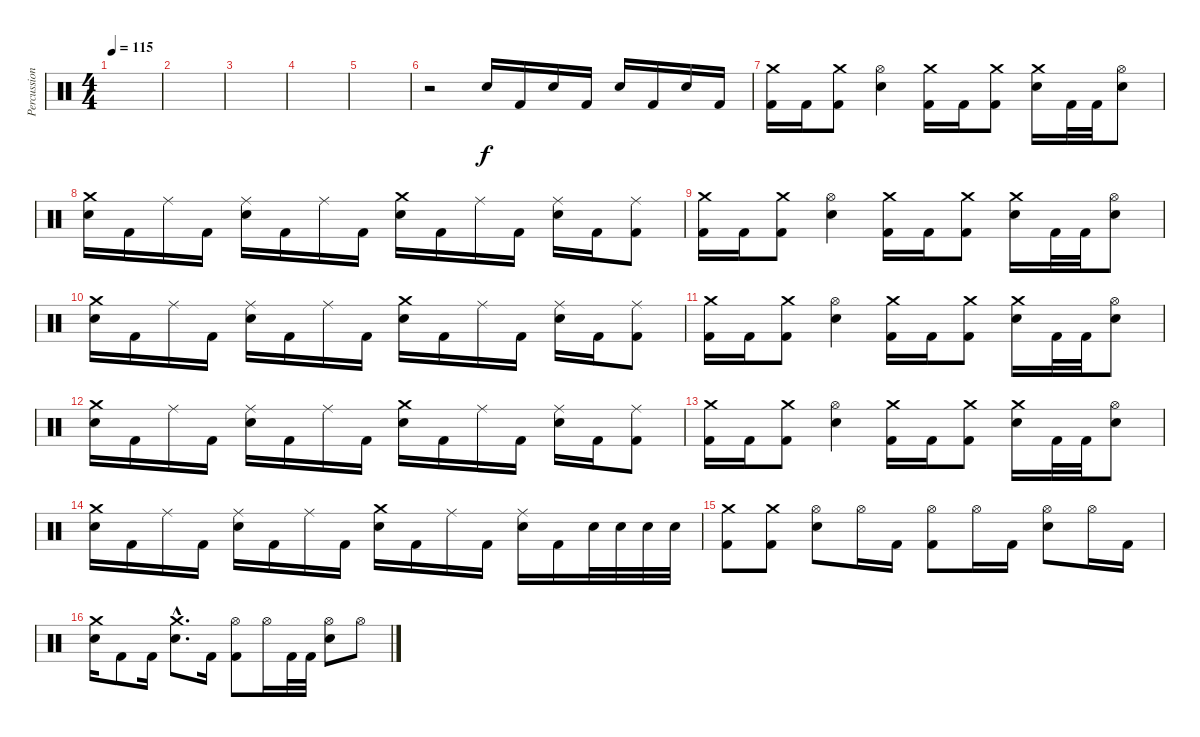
\track ("Percussion" "Percussion") {instrument percussion}
\staff {score}
\articulation defaults
\ts (4 4)
\tempo 115
\clef neutral
\ks c
|
|
|
|
|
r.2 "Snare (hit) 2".16 "Kick (hit) 2".16 "Snare (hit) 2".16 "Kick (hit) 2".16 "Snare (hit) 2".16 "Kick (hit) 2".16 "Snare (hit) 2".16 "Kick (hit) 2".16 |
("Crash medium (hit)" "Kick (hit) 2").16 "Kick (hit) 2".16 ("Crash medium (hit)" "Kick (hit) 2").8 ("Hi-Hat (open)" "Snare (hit) 2").4 ("Crash medium (hit)" "Kick (hit) 2").16 "Kick (hit) 2".16 ("Crash medium (hit)" "Kick (hit) 2").8 ("Crash medium (hit)" "Snare (hit) 2").16 "Kick (hit) 2".32 "Kick (hit) 2".32 ("Hi-Hat (open)" "Snare (hit) 2").8 |
("Crash medium (hit)" "Snare (hit) 2").16 "Kick (hit) 2".16 "Ride (middle)".16 "Kick (hit) 2".16 ("Ride (middle)" "Snare (hit) 2").16 "Kick (hit) 2".16 "Ride (middle)".16 "Kick (hit) 2".16 ("Crash medium (hit)" "Snare (hit) 2").16 "Kick (hit) 2".16 "Ride (middle)".16 "Kick (hit) 2".16 ("Ride (middle)" "Snare (hit) 2").16 "Kick (hit) 2".16 ("Ride (middle)" "Kick (hit) 2").8 |
("Crash medium (hit)" "Kick (hit) 2").16 "Kick (hit) 2".16 ("Crash medium (hit)" "Kick (hit) 2").8 ("Hi-Hat (open)" "Snare (hit) 2").4 ("Crash medium (hit)" "Kick (hit) 2").16 "Kick (hit) 2".16 ("Crash medium (hit)" "Kick (hit) 2").8 ("Crash medium (hit)" "Snare (hit) 2").16 "Kick (hit) 2".32 "Kick (hit) 2".32 ("Hi-Hat (open)" "Snare (hit) 2").8 |
("Crash medium (hit)" "Snare (hit) 2").16 "Kick (hit) 2".16 "Ride (middle)".16 "Kick (hit) 2".16 ("Ride (middle)" "Snare (hit) 2").16 "Kick (hit) 2".16 "Ride (middle)".16 "Kick (hit) 2".16 ("Crash medium (hit)" "Snare (hit) 2").16 "Kick (hit) 2".16 "Ride (middle)".16 "Kick (hit) 2".16 ("Ride (middle)" "Snare (hit) 2").16 "Kick (hit) 2".16 ("Ride (middle)" "Kick (hit) 2").8 |
("Crash medium (hit)" "Kick (hit) 2").16 "Kick (hit) 2".16 ("Crash medium (hit)" "Kick (hit) 2").8 ("Hi-Hat (open)" "Snare (hit) 2").4 ("Crash medium (hit)" "Kick (hit) 2").16 "Kick (hit) 2".16 ("Crash medium (hit)" "Kick (hit) 2").8 ("Crash medium (hit)" "Snare (hit) 2").16 "Kick (hit) 2".32 "Kick (hit) 2".32 ("Hi-Hat (open)" "Snare (hit) 2").8 |
("Crash medium (hit)" "Snare (hit) 2").16 "Kick (hit) 2".16 "Ride (middle)".16 "Kick (hit) 2".16 ("Ride (middle)" "Snare (hit) 2").16 "Kick (hit) 2".16 "Ride (middle)".16 "Kick (hit) 2".16 ("Crash medium (hit)" "Snare (hit) 2").16 "Kick (hit) 2".16 "Ride (middle)".16 "Kick (hit) 2".16 ("Ride (middle)" "Snare (hit) 2").16 "Kick (hit) 2".16 ("Ride (middle)" "Kick (hit) 2").8 |
("Crash medium (hit)" "Kick (hit) 2").16 "Kick (hit) 2".16 ("Crash medium (hit)" "Kick (hit) 2").8 ("Hi-Hat (open)" "Snare (hit) 2").4 ("Crash medium (hit)" "Kick (hit) 2").16 "Kick (hit) 2".16 ("Crash medium (hit)" "Kick (hit) 2").8 ("Crash medium (hit)" "Snare (hit) 2").16 "Kick (hit) 2".32 "Kick (hit) 2".32 ("Hi-Hat (open)" "Snare (hit) 2").8 |
("Crash medium (hit)" "Snare (hit) 2").16 "Kick (hit) 2".16 "Ride (middle)".16 "Kick (hit) 2".16 ("Ride (middle)" "Snare (hit) 2").16 "Kick (hit) 2".16 "Ride (middle)".16 "Kick (hit) 2".16 ("Crash medium (hit)" "Snare (hit) 2").16 "Kick (hit) 2".16 "Ride (middle)".16 "Kick (hit) 2".16 ("Ride (middle)" "Snare (hit) 2").16 "Kick (hit) 2".16 "Snare (hit) 2".32 "Snare (hit) 2".32 "Snare (hit) 2".32 "Snare (hit) 2".32 |
("Crash medium (hit)" "Kick (hit) 2").8 ("Crash medium (hit)" "Kick (hit) 2").8 ("Hi-Hat (open)" "Snare (hit) 2").8 "Hi-Hat (open)".16 "Kick (hit) 2".16 ("Hi-Hat (open)" "Kick (hit) 2").8 "Hi-Hat (open)".16 "Kick (hit) 2".16 ("Hi-Hat (open)" "Snare (hit) 2").8 "Hi-Hat (open)".16 "Kick (hit) 2".16 |
("Crash medium (hit)" "Snare (hit) 2").16 "Kick (hit) 2".8 "Kick (hit) 2".16 ("Crash medium (hit)"{hac} "Snare (hit) 2"{hac}).8{d} "Kick (hit) 2".16 ("Hi-Hat (open)" "Kick (hit) 2").8 "Hi-Hat (open)".16 "Kick (hit) 2".32 "Kick (hit) 2".32 ("Hi-Hat (open)" "Snare (hit) 2").8 "Hi-Hat (open)".8
